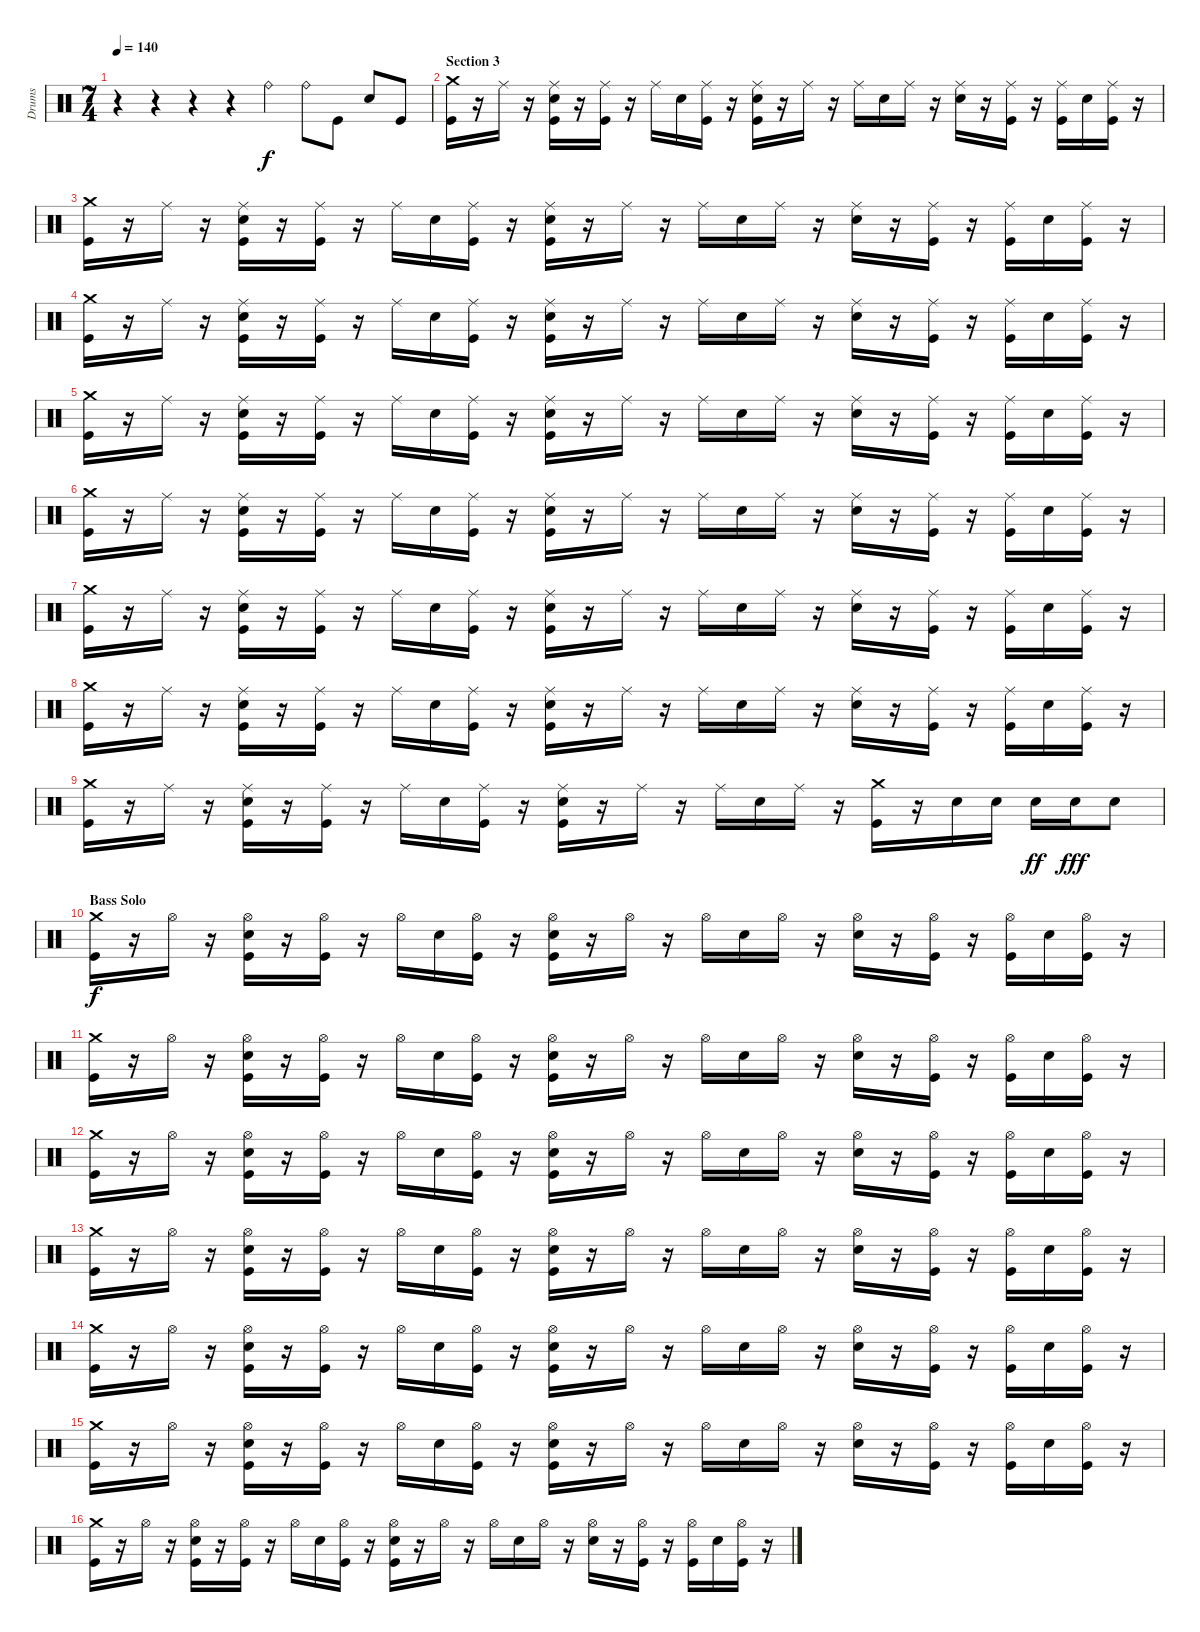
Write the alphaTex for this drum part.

\track ("Drums" "Drums") {instrument percussion}
\staff {score}
\articulation defaults
\ts (7 4)
\tempo 140
\clef neutral
\ks c
r.4{dy f} r.4 r.4 r.4 "Ride (bell)".4 "Ride (bell)".8 "Kick (hit)".8 "Electric Snare (hit)".8 "Kick (hit)".8 |
\section ("" "Section 3")
("Crash medium (hit)" "Kick (hit)").16 r.16 "Ride (middle)".16 r.16 ("Ride (middle)" "Electric Snare (hit)" "Kick (hit)").16 r.16 ("Ride (middle)" "Kick (hit)").16 r.16 "Ride (middle)".16 "Electric Snare (hit)".16 ("Ride (middle)" "Kick (hit)").16 r.16 ("Ride (middle)" "Electric Snare (hit)" "Kick (hit)").16 r.16 "Ride (middle)".16 r.16 "Ride (middle)".16 "Electric Snare (hit)".16 "Ride (middle)".16 r.16 ("Ride (middle)" "Electric Snare (hit)").16 r.16 ("Ride (middle)" "Kick (hit)").16 r.16 ("Ride (middle)" "Kick (hit)").16 "Electric Snare (hit)".16 ("Ride (middle)" "Kick (hit)").16 r.16 |
("Crash medium (hit)" "Kick (hit)").16 r.16 "Ride (middle)".16 r.16 ("Ride (middle)" "Electric Snare (hit)" "Kick (hit)").16 r.16 ("Ride (middle)" "Kick (hit)").16 r.16 "Ride (middle)".16 "Electric Snare (hit)".16 ("Ride (middle)" "Kick (hit)").16 r.16 ("Ride (middle)" "Electric Snare (hit)" "Kick (hit)").16 r.16 "Ride (middle)".16 r.16 "Ride (middle)".16 "Electric Snare (hit)".16 "Ride (middle)".16 r.16 ("Ride (middle)" "Electric Snare (hit)").16 r.16 ("Ride (middle)" "Kick (hit)").16 r.16 ("Ride (middle)" "Kick (hit)").16 "Electric Snare (hit)".16 ("Ride (middle)" "Kick (hit)").16 r.16 |
("Crash medium (hit)" "Kick (hit)").16 r.16 "Ride (middle)".16 r.16 ("Ride (middle)" "Electric Snare (hit)" "Kick (hit)").16 r.16 ("Ride (middle)" "Kick (hit)").16 r.16 "Ride (middle)".16 "Electric Snare (hit)".16 ("Ride (middle)" "Kick (hit)").16 r.16 ("Ride (middle)" "Electric Snare (hit)" "Kick (hit)").16 r.16 "Ride (middle)".16 r.16 "Ride (middle)".16 "Electric Snare (hit)".16 "Ride (middle)".16 r.16 ("Ride (middle)" "Electric Snare (hit)").16 r.16 ("Ride (middle)" "Kick (hit)").16 r.16 ("Ride (middle)" "Kick (hit)").16 "Electric Snare (hit)".16 ("Ride (middle)" "Kick (hit)").16 r.16 |
("Crash medium (hit)" "Kick (hit)").16 r.16 "Ride (middle)".16 r.16 ("Ride (middle)" "Electric Snare (hit)" "Kick (hit)").16 r.16 ("Ride (middle)" "Kick (hit)").16 r.16 "Ride (middle)".16 "Electric Snare (hit)".16 ("Ride (middle)" "Kick (hit)").16 r.16 ("Ride (middle)" "Electric Snare (hit)" "Kick (hit)").16 r.16 "Ride (middle)".16 r.16 "Ride (middle)".16 "Electric Snare (hit)".16 "Ride (middle)".16 r.16 ("Ride (middle)" "Electric Snare (hit)").16 r.16 ("Ride (middle)" "Kick (hit)").16 r.16 ("Ride (middle)" "Kick (hit)").16 "Electric Snare (hit)".16 ("Ride (middle)" "Kick (hit)").16 r.16 |
("Crash medium (hit)" "Kick (hit)").16 r.16 "Ride (middle)".16 r.16 ("Ride (middle)" "Electric Snare (hit)" "Kick (hit)").16 r.16 ("Ride (middle)" "Kick (hit)").16 r.16 "Ride (middle)".16 "Electric Snare (hit)".16 ("Ride (middle)" "Kick (hit)").16 r.16 ("Ride (middle)" "Electric Snare (hit)" "Kick (hit)").16 r.16 "Ride (middle)".16 r.16 "Ride (middle)".16 "Electric Snare (hit)".16 "Ride (middle)".16 r.16 ("Ride (middle)" "Electric Snare (hit)").16 r.16 ("Ride (middle)" "Kick (hit)").16 r.16 ("Ride (middle)" "Kick (hit)").16 "Electric Snare (hit)".16 ("Ride (middle)" "Kick (hit)").16 r.16 |
("Crash medium (hit)" "Kick (hit)").16 r.16 "Ride (middle)".16 r.16 ("Ride (middle)" "Electric Snare (hit)" "Kick (hit)").16 r.16 ("Ride (middle)" "Kick (hit)").16 r.16 "Ride (middle)".16 "Electric Snare (hit)".16 ("Ride (middle)" "Kick (hit)").16 r.16 ("Ride (middle)" "Electric Snare (hit)" "Kick (hit)").16 r.16 "Ride (middle)".16 r.16 "Ride (middle)".16 "Electric Snare (hit)".16 "Ride (middle)".16 r.16 ("Ride (middle)" "Electric Snare (hit)").16 r.16 ("Ride (middle)" "Kick (hit)").16 r.16 ("Ride (middle)" "Kick (hit)").16 "Electric Snare (hit)".16 ("Ride (middle)" "Kick (hit)").16 r.16 |
("Crash medium (hit)" "Kick (hit)").16 r.16 "Ride (middle)".16 r.16 ("Ride (middle)" "Electric Snare (hit)" "Kick (hit)").16 r.16 ("Ride (middle)" "Kick (hit)").16 r.16 "Ride (middle)".16 "Electric Snare (hit)".16 ("Ride (middle)" "Kick (hit)").16 r.16 ("Ride (middle)" "Electric Snare (hit)" "Kick (hit)").16 r.16 "Ride (middle)".16 r.16 "Ride (middle)".16 "Electric Snare (hit)".16 "Ride (middle)".16 r.16 ("Ride (middle)" "Electric Snare (hit)").16 r.16 ("Ride (middle)" "Kick (hit)").16 r.16 ("Ride (middle)" "Kick (hit)").16 "Electric Snare (hit)".16 ("Ride (middle)" "Kick (hit)").16 r.16 |
("Crash medium (hit)" "Kick (hit)").16 r.16 "Ride (middle)".16 r.16 ("Ride (middle)" "Electric Snare (hit)" "Kick (hit)").16 r.16 ("Ride (middle)" "Kick (hit)").16 r.16 "Ride (middle)".16 "Electric Snare (hit)".16 ("Ride (middle)" "Kick (hit)").16 r.16 ("Ride (middle)" "Electric Snare (hit)" "Kick (hit)").16 r.16 "Ride (middle)".16 r.16 "Ride (middle)".16 "Electric Snare (hit)".16 "Ride (middle)".16 r.16 ("Crash medium (hit)" "Kick (hit)").16 r.16 "Electric Snare (hit)".16 "Electric Snare (hit)".16 "Electric Snare (hit)".16{dy ff} "Electric Snare (hit)".16{dy fff} "Electric Snare (hit)".8 |
\section ("" "Bass Solo")
("Crash medium (hit)" "Kick (hit)").16{dy f} r.16 "Hi-Hat (open)".16 r.16 ("Hi-Hat (open)" "Electric Snare (hit)" "Kick (hit)").16 r.16 ("Hi-Hat (open)" "Kick (hit)").16 r.16 "Hi-Hat (open)".16 "Electric Snare (hit)".16 ("Hi-Hat (open)" "Kick (hit)").16 r.16 ("Hi-Hat (open)" "Electric Snare (hit)" "Kick (hit)").16 r.16 "Hi-Hat (open)".16 r.16 "Hi-Hat (open)".16 "Electric Snare (hit)".16 "Hi-Hat (open)".16 r.16 ("Hi-Hat (open)" "Electric Snare (hit)").16 r.16 ("Hi-Hat (open)" "Kick (hit)").16 r.16 ("Hi-Hat (open)" "Kick (hit)").16 "Electric Snare (hit)".16 ("Hi-Hat (open)" "Kick (hit)").16 r.16 |
("Crash medium (hit)" "Kick (hit)").16 r.16 "Hi-Hat (open)".16 r.16 ("Hi-Hat (open)" "Electric Snare (hit)" "Kick (hit)").16 r.16 ("Hi-Hat (open)" "Kick (hit)").16 r.16 "Hi-Hat (open)".16 "Electric Snare (hit)".16 ("Hi-Hat (open)" "Kick (hit)").16 r.16 ("Hi-Hat (open)" "Electric Snare (hit)" "Kick (hit)").16 r.16 "Hi-Hat (open)".16 r.16 "Hi-Hat (open)".16 "Electric Snare (hit)".16 "Hi-Hat (open)".16 r.16 ("Hi-Hat (open)" "Electric Snare (hit)").16 r.16 ("Hi-Hat (open)" "Kick (hit)").16 r.16 ("Hi-Hat (open)" "Kick (hit)").16 "Electric Snare (hit)".16 ("Hi-Hat (open)" "Kick (hit)").16 r.16 |
("Crash medium (hit)" "Kick (hit)").16 r.16 "Hi-Hat (open)".16 r.16 ("Hi-Hat (open)" "Electric Snare (hit)" "Kick (hit)").16 r.16 ("Hi-Hat (open)" "Kick (hit)").16 r.16 "Hi-Hat (open)".16 "Electric Snare (hit)".16 ("Hi-Hat (open)" "Kick (hit)").16 r.16 ("Hi-Hat (open)" "Electric Snare (hit)" "Kick (hit)").16 r.16 "Hi-Hat (open)".16 r.16 "Hi-Hat (open)".16 "Electric Snare (hit)".16 "Hi-Hat (open)".16 r.16 ("Hi-Hat (open)" "Electric Snare (hit)").16 r.16 ("Hi-Hat (open)" "Kick (hit)").16 r.16 ("Hi-Hat (open)" "Kick (hit)").16 "Electric Snare (hit)".16 ("Hi-Hat (open)" "Kick (hit)").16 r.16 |
("Crash medium (hit)" "Kick (hit)").16 r.16 "Hi-Hat (open)".16 r.16 ("Hi-Hat (open)" "Electric Snare (hit)" "Kick (hit)").16 r.16 ("Hi-Hat (open)" "Kick (hit)").16 r.16 "Hi-Hat (open)".16 "Electric Snare (hit)".16 ("Hi-Hat (open)" "Kick (hit)").16 r.16 ("Hi-Hat (open)" "Electric Snare (hit)" "Kick (hit)").16 r.16 "Hi-Hat (open)".16 r.16 "Hi-Hat (open)".16 "Electric Snare (hit)".16 "Hi-Hat (open)".16 r.16 ("Hi-Hat (open)" "Electric Snare (hit)").16 r.16 ("Hi-Hat (open)" "Kick (hit)").16 r.16 ("Hi-Hat (open)" "Kick (hit)").16 "Electric Snare (hit)".16 ("Hi-Hat (open)" "Kick (hit)").16 r.16 |
("Crash medium (hit)" "Kick (hit)").16 r.16 "Hi-Hat (open)".16 r.16 ("Hi-Hat (open)" "Electric Snare (hit)" "Kick (hit)").16 r.16 ("Hi-Hat (open)" "Kick (hit)").16 r.16 "Hi-Hat (open)".16 "Electric Snare (hit)".16 ("Hi-Hat (open)" "Kick (hit)").16 r.16 ("Hi-Hat (open)" "Electric Snare (hit)" "Kick (hit)").16 r.16 "Hi-Hat (open)".16 r.16 "Hi-Hat (open)".16 "Electric Snare (hit)".16 "Hi-Hat (open)".16 r.16 ("Hi-Hat (open)" "Electric Snare (hit)").16 r.16 ("Hi-Hat (open)" "Kick (hit)").16 r.16 ("Hi-Hat (open)" "Kick (hit)").16 "Electric Snare (hit)".16 ("Hi-Hat (open)" "Kick (hit)").16 r.16 |
("Crash medium (hit)" "Kick (hit)").16 r.16 "Hi-Hat (open)".16 r.16 ("Hi-Hat (open)" "Electric Snare (hit)" "Kick (hit)").16 r.16 ("Hi-Hat (open)" "Kick (hit)").16 r.16 "Hi-Hat (open)".16 "Electric Snare (hit)".16 ("Hi-Hat (open)" "Kick (hit)").16 r.16 ("Hi-Hat (open)" "Electric Snare (hit)" "Kick (hit)").16 r.16 "Hi-Hat (open)".16 r.16 "Hi-Hat (open)".16 "Electric Snare (hit)".16 "Hi-Hat (open)".16 r.16 ("Hi-Hat (open)" "Electric Snare (hit)").16 r.16 ("Hi-Hat (open)" "Kick (hit)").16 r.16 ("Hi-Hat (open)" "Kick (hit)").16 "Electric Snare (hit)".16 ("Hi-Hat (open)" "Kick (hit)").16 r.16 |
("Crash medium (hit)" "Kick (hit)").16 r.16 "Hi-Hat (open)".16 r.16 ("Hi-Hat (open)" "Electric Snare (hit)" "Kick (hit)").16 r.16 ("Hi-Hat (open)" "Kick (hit)").16 r.16 "Hi-Hat (open)".16 "Electric Snare (hit)".16 ("Hi-Hat (open)" "Kick (hit)").16 r.16 ("Hi-Hat (open)" "Electric Snare (hit)" "Kick (hit)").16 r.16 "Hi-Hat (open)".16 r.16 "Hi-Hat (open)".16 "Electric Snare (hit)".16 "Hi-Hat (open)".16 r.16 ("Hi-Hat (open)" "Electric Snare (hit)").16 r.16 ("Hi-Hat (open)" "Kick (hit)").16 r.16 ("Hi-Hat (open)" "Kick (hit)").16 "Electric Snare (hit)".16 ("Hi-Hat (open)" "Kick (hit)").16 r.16
